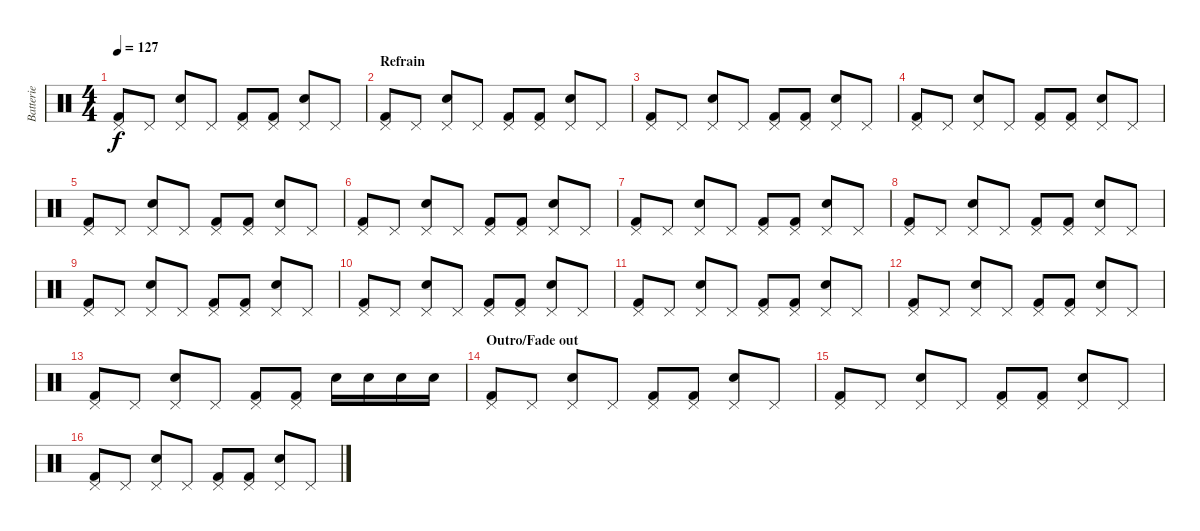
\track ("Batterie" "Batterie") {instrument percussion}
\staff {score}
\articulation defaults
\ts (4 4)
\tempo 127
\clef neutral
\ks c
("Pedal Hi-Hat (hit)" "Kick (hit) 2").8{dy f} "Pedal Hi-Hat (hit)".8 ("Pedal Hi-Hat (hit)" "Electric Snare (hit)").8 "Pedal Hi-Hat (hit)".8 ("Pedal Hi-Hat (hit)" "Kick (hit) 2").8 ("Pedal Hi-Hat (hit)" "Kick (hit) 2").8 ("Pedal Hi-Hat (hit)" "Electric Snare (hit)").8 "Pedal Hi-Hat (hit)".8 |
\section ("" "Refrain")
("Pedal Hi-Hat (hit)" "Kick (hit) 2").8 "Pedal Hi-Hat (hit)".8 ("Pedal Hi-Hat (hit)" "Electric Snare (hit)").8 "Pedal Hi-Hat (hit)".8 ("Pedal Hi-Hat (hit)" "Kick (hit) 2").8 ("Pedal Hi-Hat (hit)" "Kick (hit) 2").8 ("Pedal Hi-Hat (hit)" "Electric Snare (hit)").8 "Pedal Hi-Hat (hit)".8 |
("Pedal Hi-Hat (hit)" "Kick (hit) 2").8 "Pedal Hi-Hat (hit)".8 ("Pedal Hi-Hat (hit)" "Electric Snare (hit)").8 "Pedal Hi-Hat (hit)".8 ("Pedal Hi-Hat (hit)" "Kick (hit) 2").8 ("Pedal Hi-Hat (hit)" "Kick (hit) 2").8 ("Pedal Hi-Hat (hit)" "Electric Snare (hit)").8 "Pedal Hi-Hat (hit)".8 |
("Pedal Hi-Hat (hit)" "Kick (hit) 2").8 "Pedal Hi-Hat (hit)".8 ("Pedal Hi-Hat (hit)" "Electric Snare (hit)").8 "Pedal Hi-Hat (hit)".8 ("Pedal Hi-Hat (hit)" "Kick (hit) 2").8 ("Pedal Hi-Hat (hit)" "Kick (hit) 2").8 ("Pedal Hi-Hat (hit)" "Electric Snare (hit)").8 "Pedal Hi-Hat (hit)".8 |
("Pedal Hi-Hat (hit)" "Kick (hit) 2").8 "Pedal Hi-Hat (hit)".8 ("Pedal Hi-Hat (hit)" "Electric Snare (hit)").8 "Pedal Hi-Hat (hit)".8 ("Pedal Hi-Hat (hit)" "Kick (hit) 2").8 ("Pedal Hi-Hat (hit)" "Kick (hit) 2").8 ("Pedal Hi-Hat (hit)" "Electric Snare (hit)").8 "Pedal Hi-Hat (hit)".8 |
("Pedal Hi-Hat (hit)" "Kick (hit) 2").8 "Pedal Hi-Hat (hit)".8 ("Pedal Hi-Hat (hit)" "Electric Snare (hit)").8 "Pedal Hi-Hat (hit)".8 ("Pedal Hi-Hat (hit)" "Kick (hit) 2").8 ("Pedal Hi-Hat (hit)" "Kick (hit) 2").8 ("Pedal Hi-Hat (hit)" "Electric Snare (hit)").8 "Pedal Hi-Hat (hit)".8 |
("Pedal Hi-Hat (hit)" "Kick (hit) 2").8 "Pedal Hi-Hat (hit)".8 ("Pedal Hi-Hat (hit)" "Electric Snare (hit)").8 "Pedal Hi-Hat (hit)".8 ("Pedal Hi-Hat (hit)" "Kick (hit) 2").8 ("Pedal Hi-Hat (hit)" "Kick (hit) 2").8 ("Pedal Hi-Hat (hit)" "Electric Snare (hit)").8 "Pedal Hi-Hat (hit)".8 |
("Pedal Hi-Hat (hit)" "Kick (hit) 2").8 "Pedal Hi-Hat (hit)".8 ("Pedal Hi-Hat (hit)" "Electric Snare (hit)").8 "Pedal Hi-Hat (hit)".8 ("Pedal Hi-Hat (hit)" "Kick (hit) 2").8 ("Pedal Hi-Hat (hit)" "Kick (hit) 2").8 ("Pedal Hi-Hat (hit)" "Electric Snare (hit)").8 "Pedal Hi-Hat (hit)".8 |
("Pedal Hi-Hat (hit)" "Kick (hit) 2").8 "Pedal Hi-Hat (hit)".8 ("Pedal Hi-Hat (hit)" "Electric Snare (hit)").8 "Pedal Hi-Hat (hit)".8 ("Pedal Hi-Hat (hit)" "Kick (hit) 2").8 ("Pedal Hi-Hat (hit)" "Kick (hit) 2").8 ("Pedal Hi-Hat (hit)" "Electric Snare (hit)").8 "Pedal Hi-Hat (hit)".8 |
("Pedal Hi-Hat (hit)" "Kick (hit) 2").8 "Pedal Hi-Hat (hit)".8 ("Pedal Hi-Hat (hit)" "Electric Snare (hit)").8 "Pedal Hi-Hat (hit)".8 ("Pedal Hi-Hat (hit)" "Kick (hit) 2").8 ("Pedal Hi-Hat (hit)" "Kick (hit) 2").8 ("Pedal Hi-Hat (hit)" "Electric Snare (hit)").8 "Pedal Hi-Hat (hit)".8 |
("Pedal Hi-Hat (hit)" "Kick (hit) 2").8 "Pedal Hi-Hat (hit)".8 ("Pedal Hi-Hat (hit)" "Electric Snare (hit)").8 "Pedal Hi-Hat (hit)".8 ("Pedal Hi-Hat (hit)" "Kick (hit) 2").8 ("Pedal Hi-Hat (hit)" "Kick (hit) 2").8 ("Pedal Hi-Hat (hit)" "Electric Snare (hit)").8 "Pedal Hi-Hat (hit)".8 |
("Pedal Hi-Hat (hit)" "Kick (hit) 2").8 "Pedal Hi-Hat (hit)".8 ("Pedal Hi-Hat (hit)" "Electric Snare (hit)").8 "Pedal Hi-Hat (hit)".8 ("Pedal Hi-Hat (hit)" "Kick (hit) 2").8 ("Pedal Hi-Hat (hit)" "Kick (hit) 2").8 ("Pedal Hi-Hat (hit)" "Electric Snare (hit)").8 "Pedal Hi-Hat (hit)".8 |
("Pedal Hi-Hat (hit)" "Kick (hit) 2").8 "Pedal Hi-Hat (hit)".8 ("Pedal Hi-Hat (hit)" "Electric Snare (hit)").8 "Pedal Hi-Hat (hit)".8 ("Pedal Hi-Hat (hit)" "Kick (hit) 2").8 ("Pedal Hi-Hat (hit)" "Kick (hit) 2").8 "Electric Snare (hit)".16 "Electric Snare (hit)".16 "Electric Snare (hit)".16 "Electric Snare (hit)".16 |
\section ("" "Outro/Fade out")
("Pedal Hi-Hat (hit)" "Kick (hit) 2").8 "Pedal Hi-Hat (hit)".8 ("Pedal Hi-Hat (hit)" "Electric Snare (hit)").8 "Pedal Hi-Hat (hit)".8 ("Pedal Hi-Hat (hit)" "Kick (hit) 2").8 ("Pedal Hi-Hat (hit)" "Kick (hit) 2").8 ("Pedal Hi-Hat (hit)" "Electric Snare (hit)").8 "Pedal Hi-Hat (hit)".8 |
("Pedal Hi-Hat (hit)" "Kick (hit) 2").8 "Pedal Hi-Hat (hit)".8 ("Pedal Hi-Hat (hit)" "Electric Snare (hit)").8 "Pedal Hi-Hat (hit)".8 ("Pedal Hi-Hat (hit)" "Kick (hit) 2").8 ("Pedal Hi-Hat (hit)" "Kick (hit) 2").8 ("Pedal Hi-Hat (hit)" "Electric Snare (hit)").8 "Pedal Hi-Hat (hit)".8 |
("Pedal Hi-Hat (hit)" "Kick (hit) 2").8 "Pedal Hi-Hat (hit)".8 ("Pedal Hi-Hat (hit)" "Electric Snare (hit)").8 "Pedal Hi-Hat (hit)".8 ("Pedal Hi-Hat (hit)" "Kick (hit) 2").8 ("Pedal Hi-Hat (hit)" "Kick (hit) 2").8 ("Pedal Hi-Hat (hit)" "Electric Snare (hit)").8 "Pedal Hi-Hat (hit)".8
